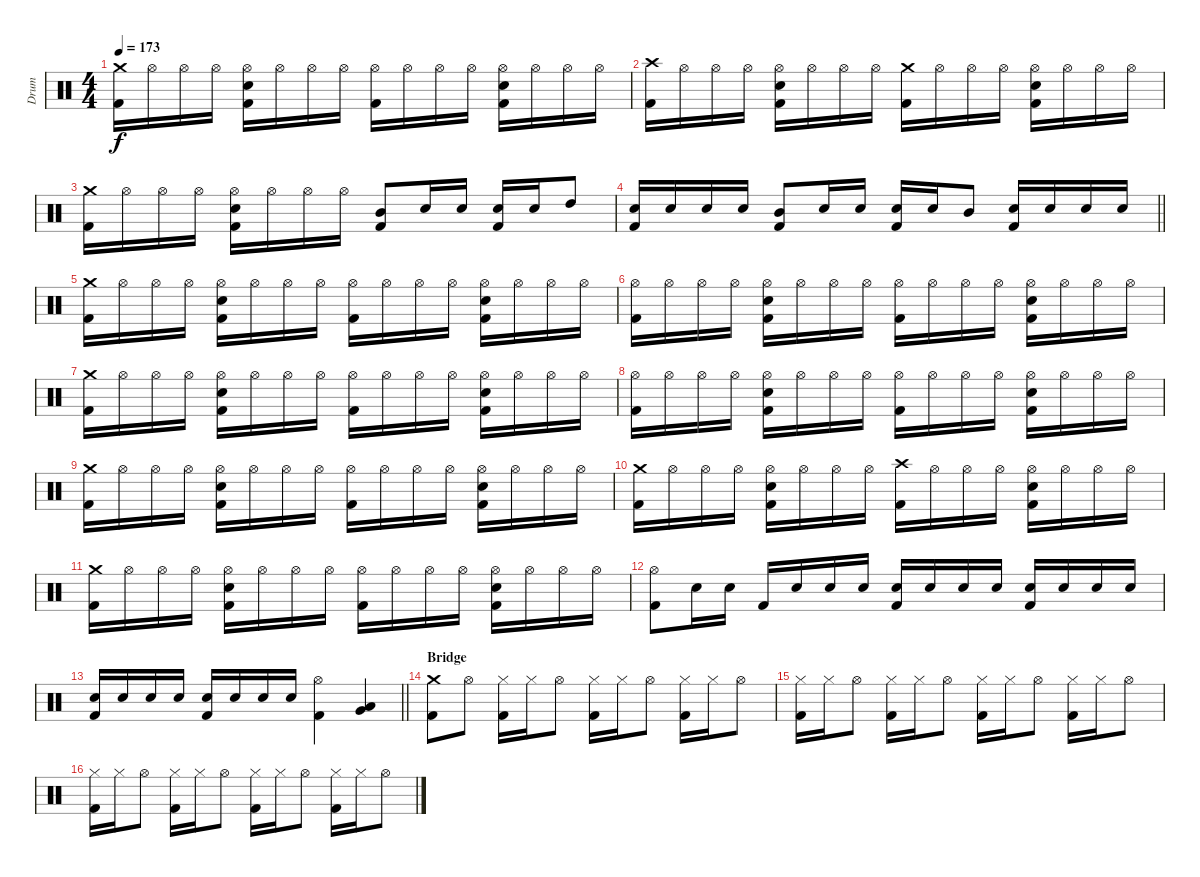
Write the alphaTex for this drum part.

\track ("Drum" "Drum") {instrument percussion}
\staff {score}
\articulation defaults
\ts (4 4)
\tempo 173
\clef neutral
\ks c
("Crash medium (hit)" "Kick (hit) 2").16{dy f} "Hi-Hat (open)".16 "Hi-Hat (open)".16 "Hi-Hat (open)".16 ("Hi-Hat (open)" "Kick (hit) 2" "Snare (hit) 2").16 "Hi-Hat (open)".16 "Hi-Hat (open)".16 "Hi-Hat (open)".16 ("Hi-Hat (open)" "Kick (hit) 2").16 "Hi-Hat (open)".16 "Hi-Hat (open)".16 "Hi-Hat (open)".16 ("Hi-Hat (open)" "Kick (hit) 2" "Snare (hit) 2").16 "Hi-Hat (open)".16 "Hi-Hat (open)".16 "Hi-Hat (open)".16 |
("Crash high (hit)" "Kick (hit) 2").16 "Hi-Hat (open)".16 "Hi-Hat (open)".16 "Hi-Hat (open)".16 ("Hi-Hat (open)" "Kick (hit) 2" "Snare (hit) 2").16 "Hi-Hat (open)".16 "Hi-Hat (open)".16 "Hi-Hat (open)".16 ("Crash medium (hit)" "Kick (hit) 2").16 "Hi-Hat (open)".16 "Hi-Hat (open)".16 "Hi-Hat (open)".16 ("Hi-Hat (open)" "Kick (hit) 2" "Snare (hit) 2").16 "Hi-Hat (open)".16 "Hi-Hat (open)".16 "Hi-Hat (open)".16 |
("Crash medium (hit)" "Kick (hit) 2").16 "Hi-Hat (open)".16 "Hi-Hat (open)".16 "Hi-Hat (open)".16 ("Hi-Hat (open)" "Kick (hit) 2" "Snare (hit) 2").16 "Hi-Hat (open)".16 "Hi-Hat (open)".16 "Hi-Hat (open)".16 ("Mid Tom (hit)" "Kick (hit) 2").8 "Snare (hit) 2".16 "Snare (hit) 2".16 ("Snare (hit) 2" "Kick (hit) 2").16 "Snare (hit) 2".16 "High Tom (hit)".8 |
\barLineRight lightlight
("Snare (hit) 2" "Kick (hit) 2").16 "Snare (hit) 2".16 "Snare (hit) 2".16 "Snare (hit) 2".16 ("Mid Tom (hit)" "Kick (hit) 2").8 "Snare (hit) 2".16 "Snare (hit) 2".16 ("Snare (hit) 2" "Kick (hit) 2").16 "Snare (hit) 2".16 "Mid Tom (hit)".8 ("Snare (hit) 2" "Kick (hit) 2").16 "Snare (hit) 2".16 "Snare (hit) 2".16 "Snare (hit) 2".16 |
("Crash medium (hit)" "Kick (hit) 2").16 "Hi-Hat (open)".16 "Hi-Hat (open)".16 "Hi-Hat (open)".16 ("Hi-Hat (open)" "Kick (hit) 2" "Snare (hit) 2").16 "Hi-Hat (open)".16 "Hi-Hat (open)".16 "Hi-Hat (open)".16 ("Hi-Hat (open)" "Kick (hit) 2").16 "Hi-Hat (open)".16 "Hi-Hat (open)".16 "Hi-Hat (open)".16 ("Hi-Hat (open)" "Kick (hit) 2" "Snare (hit) 2").16 "Hi-Hat (open)".16 "Hi-Hat (open)".16 "Hi-Hat (open)".16 |
("Hi-Hat (open)" "Kick (hit) 2").16 "Hi-Hat (open)".16 "Hi-Hat (open)".16 "Hi-Hat (open)".16 ("Hi-Hat (open)" "Kick (hit) 2" "Snare (hit) 2").16 "Hi-Hat (open)".16 "Hi-Hat (open)".16 "Hi-Hat (open)".16 ("Hi-Hat (open)" "Kick (hit) 2").16 "Hi-Hat (open)".16 "Hi-Hat (open)".16 "Hi-Hat (open)".16 ("Hi-Hat (open)" "Kick (hit) 2" "Snare (hit) 2").16 "Hi-Hat (open)".16 "Hi-Hat (open)".16 "Hi-Hat (open)".16 |
("Crash medium (hit)" "Kick (hit) 2").16 "Hi-Hat (open)".16 "Hi-Hat (open)".16 "Hi-Hat (open)".16 ("Hi-Hat (open)" "Kick (hit) 2" "Snare (hit) 2").16 "Hi-Hat (open)".16 "Hi-Hat (open)".16 "Hi-Hat (open)".16 ("Hi-Hat (open)" "Kick (hit) 2").16 "Hi-Hat (open)".16 "Hi-Hat (open)".16 "Hi-Hat (open)".16 ("Hi-Hat (open)" "Kick (hit) 2" "Snare (hit) 2").16 "Hi-Hat (open)".16 "Hi-Hat (open)".16 "Hi-Hat (open)".16 |
("Hi-Hat (open)" "Kick (hit) 2").16 "Hi-Hat (open)".16 "Hi-Hat (open)".16 "Hi-Hat (open)".16 ("Hi-Hat (open)" "Kick (hit) 2" "Snare (hit) 2").16 "Hi-Hat (open)".16 "Hi-Hat (open)".16 "Hi-Hat (open)".16 ("Hi-Hat (open)" "Kick (hit) 2").16 "Hi-Hat (open)".16 "Hi-Hat (open)".16 "Hi-Hat (open)".16 ("Hi-Hat (open)" "Kick (hit) 2" "Snare (hit) 2").16 "Hi-Hat (open)".16 "Hi-Hat (open)".16 "Hi-Hat (open)".16 |
("Crash medium (hit)" "Kick (hit) 2").16 "Hi-Hat (open)".16 "Hi-Hat (open)".16 "Hi-Hat (open)".16 ("Hi-Hat (open)" "Kick (hit) 2" "Snare (hit) 2").16 "Hi-Hat (open)".16 "Hi-Hat (open)".16 "Hi-Hat (open)".16 ("Hi-Hat (open)" "Kick (hit) 2").16 "Hi-Hat (open)".16 "Hi-Hat (open)".16 "Hi-Hat (open)".16 ("Hi-Hat (open)" "Kick (hit) 2" "Snare (hit) 2").16 "Hi-Hat (open)".16 "Hi-Hat (open)".16 "Hi-Hat (open)".16 |
("Crash medium (hit)" "Kick (hit) 2").16 "Hi-Hat (open)".16 "Hi-Hat (open)".16 "Hi-Hat (open)".16 ("Hi-Hat (open)" "Kick (hit) 2" "Snare (hit) 2").16 "Hi-Hat (open)".16 "Hi-Hat (open)".16 "Hi-Hat (open)".16 ("Crash high (hit)" "Kick (hit) 2").16 "Hi-Hat (open)".16 "Hi-Hat (open)".16 "Hi-Hat (open)".16 ("Hi-Hat (open)" "Kick (hit) 2" "Snare (hit) 2").16 "Hi-Hat (open)".16 "Hi-Hat (open)".16 "Hi-Hat (open)".16 |
("Crash medium (hit)" "Kick (hit) 2").16 "Hi-Hat (open)".16 "Hi-Hat (open)".16 "Hi-Hat (open)".16 ("Hi-Hat (open)" "Kick (hit) 2" "Snare (hit) 2").16 "Hi-Hat (open)".16 "Hi-Hat (open)".16 "Hi-Hat (open)".16 ("Hi-Hat (open)" "Kick (hit) 2").16 "Hi-Hat (open)".16 "Hi-Hat (open)".16 "Hi-Hat (open)".16 ("Hi-Hat (open)" "Kick (hit) 2" "Snare (hit) 2").16 "Hi-Hat (open)".16 "Hi-Hat (open)".16 "Hi-Hat (open)".16 |
("Kick (hit) 2" "Hi-Hat (open)").8 "Snare (hit) 2".16 "Snare (hit) 2".16 "Kick (hit) 2".16 "Snare (hit) 2".16 "Snare (hit) 2".16 "Snare (hit) 2".16 ("Snare (hit) 2" "Kick (hit) 2").16 "Snare (hit) 2".16 "Snare (hit) 2".16 "Snare (hit) 2".16 ("Snare (hit) 2" "Kick (hit) 2").16 "Snare (hit) 2".16 "Snare (hit) 2".16 "Snare (hit) 2".16 |
\barLineRight lightlight
("Snare (hit) 2" "Kick (hit) 2").16 "Snare (hit) 2".16 "Snare (hit) 2".16 "Snare (hit) 2".16 ("Snare (hit) 2" "Kick (hit) 2").16 "Snare (hit) 2".16 "Snare (hit) 2".16 "Snare (hit) 2".16 ("Hi-Hat (open)" "Kick (hit) 2").4 ("Very Low Tom (hit)" "Low Tom (hit)").4 |
\section ("" "Bridge")
("Crash medium (hit)" "Kick (hit) 2").8 "Hi-Hat (open)".8 ("Hi-Hat (closed)" "Kick (hit) 2").16 "Hi-Hat (closed)".16 "Hi-Hat (open)".8 ("Hi-Hat (closed)" "Kick (hit) 2").16 "Hi-Hat (closed)".16 "Hi-Hat (open)".8 ("Hi-Hat (closed)" "Kick (hit) 2").16 "Hi-Hat (closed)".16 "Hi-Hat (open)".8 |
("Hi-Hat (closed)" "Kick (hit) 2").16 "Hi-Hat (closed)".16 "Hi-Hat (open)".8 ("Hi-Hat (closed)" "Kick (hit) 2").16 "Hi-Hat (closed)".16 "Hi-Hat (open)".8 ("Hi-Hat (closed)" "Kick (hit) 2").16 "Hi-Hat (closed)".16 "Hi-Hat (open)".8 ("Hi-Hat (closed)" "Kick (hit) 2").16 "Hi-Hat (closed)".16 "Hi-Hat (open)".8 |
("Hi-Hat (closed)" "Kick (hit) 2").16 "Hi-Hat (closed)".16 "Hi-Hat (open)".8 ("Hi-Hat (closed)" "Kick (hit) 2").16 "Hi-Hat (closed)".16 "Hi-Hat (open)".8 ("Hi-Hat (closed)" "Kick (hit) 2").16 "Hi-Hat (closed)".16 "Hi-Hat (open)".8 ("Hi-Hat (closed)" "Kick (hit) 2").16 "Hi-Hat (closed)".16 "Hi-Hat (open)".8
